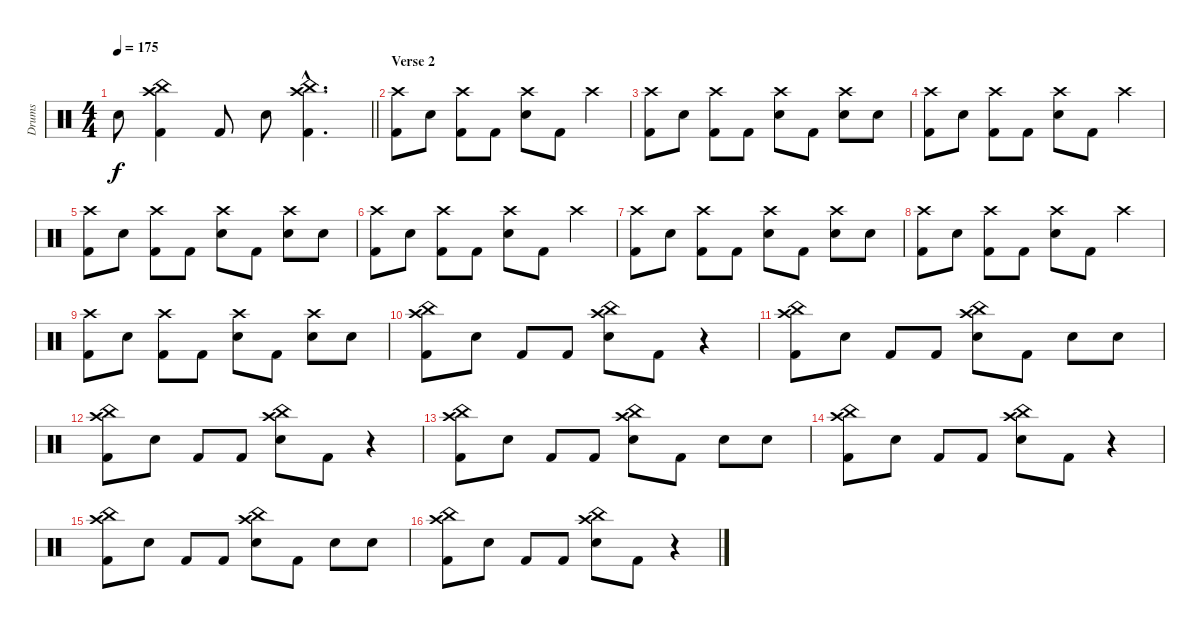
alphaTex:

\track ("Drums" "Drums") {instrument percussion}
\staff {score}
\articulation defaults
\ts (4 4)
\tempo 175
\clef neutral
\barLineRight lightlight
\ks c "Snare (hit) 2".8{dy f}
("China (hit)" "Crash high (hit)" "Kick (hit) 2").4 "Kick (hit) 2".8 "Snare (hit) 2".8 ("China (hit)"{hac} "Crash high (hit)"{hac} "Kick (hit) 2"{hac}).4{d} |
\section ("" "Verse 2")
("Crash high (hit)" "Kick (hit) 2").8 "Snare (hit) 2".8 ("Crash high (hit)" "Kick (hit) 2").8 "Kick (hit) 2".8 ("Crash high (hit)" "Snare (hit) 2").8 "Kick (hit) 2".8 "Crash high (hit)".4 |
("Crash high (hit)" "Kick (hit) 2").8 "Snare (hit) 2".8 ("Crash high (hit)" "Kick (hit) 2").8 "Kick (hit) 2".8 ("Crash high (hit)" "Snare (hit) 2").8 "Kick (hit) 2".8 ("Crash high (hit)" "Snare (hit) 2").8 "Snare (hit) 2".8 |
("Crash high (hit)" "Kick (hit) 2").8 "Snare (hit) 2".8 ("Crash high (hit)" "Kick (hit) 2").8 "Kick (hit) 2".8 ("Crash high (hit)" "Snare (hit) 2").8 "Kick (hit) 2".8 "Crash high (hit)".4 |
("Crash high (hit)" "Kick (hit) 2").8 "Snare (hit) 2".8 ("Crash high (hit)" "Kick (hit) 2").8 "Kick (hit) 2".8 ("Crash high (hit)" "Snare (hit) 2").8 "Kick (hit) 2".8 ("Crash high (hit)" "Snare (hit) 2").8 "Snare (hit) 2".8 |
("Crash high (hit)" "Kick (hit) 2").8 "Snare (hit) 2".8 ("Crash high (hit)" "Kick (hit) 2").8 "Kick (hit) 2".8 ("Crash high (hit)" "Snare (hit) 2").8 "Kick (hit) 2".8 "Crash high (hit)".4 |
("Crash high (hit)" "Kick (hit) 2").8 "Snare (hit) 2".8 ("Crash high (hit)" "Kick (hit) 2").8 "Kick (hit) 2".8 ("Crash high (hit)" "Snare (hit) 2").8 "Kick (hit) 2".8 ("Crash high (hit)" "Snare (hit) 2").8 "Snare (hit) 2".8 |
("Crash high (hit)" "Kick (hit) 2").8 "Snare (hit) 2".8 ("Crash high (hit)" "Kick (hit) 2").8 "Kick (hit) 2".8 ("Crash high (hit)" "Snare (hit) 2").8 "Kick (hit) 2".8 "Crash high (hit)".4 |
("Crash high (hit)" "Kick (hit) 2").8 "Snare (hit) 2".8 ("Crash high (hit)" "Kick (hit) 2").8 "Kick (hit) 2".8 ("Crash high (hit)" "Snare (hit) 2").8 "Kick (hit) 2".8 ("Crash high (hit)" "Snare (hit) 2").8 "Snare (hit) 2".8 |
("Crash high (hit)" "China (hit)" "Kick (hit) 2").8 "Snare (hit) 2".8 "Kick (hit) 2".8 "Kick (hit) 2".8 ("Crash high (hit)" "China (hit)" "Snare (hit) 2").8 "Kick (hit) 2".8 r.4 |
("Crash high (hit)" "China (hit)" "Kick (hit) 2").8 "Snare (hit) 2".8 "Kick (hit) 2".8 "Kick (hit) 2".8 ("Crash high (hit)" "China (hit)" "Snare (hit) 2").8 "Kick (hit) 2".8 "Snare (hit) 2".8 "Snare (hit) 2".8 |
("Crash high (hit)" "China (hit)" "Kick (hit) 2").8 "Snare (hit) 2".8 "Kick (hit) 2".8 "Kick (hit) 2".8 ("Crash high (hit)" "China (hit)" "Snare (hit) 2").8 "Kick (hit) 2".8 r.4 |
("Crash high (hit)" "China (hit)" "Kick (hit) 2").8 "Snare (hit) 2".8 "Kick (hit) 2".8 "Kick (hit) 2".8 ("Crash high (hit)" "China (hit)" "Snare (hit) 2").8 "Kick (hit) 2".8 "Snare (hit) 2".8 "Snare (hit) 2".8 |
("Crash high (hit)" "China (hit)" "Kick (hit) 2").8 "Snare (hit) 2".8 "Kick (hit) 2".8 "Kick (hit) 2".8 ("Crash high (hit)" "China (hit)" "Snare (hit) 2").8 "Kick (hit) 2".8 r.4 |
("Crash high (hit)" "China (hit)" "Kick (hit) 2").8 "Snare (hit) 2".8 "Kick (hit) 2".8 "Kick (hit) 2".8 ("Crash high (hit)" "China (hit)" "Snare (hit) 2").8 "Kick (hit) 2".8 "Snare (hit) 2".8 "Snare (hit) 2".8 |
("Crash high (hit)" "China (hit)" "Kick (hit) 2").8 "Snare (hit) 2".8 "Kick (hit) 2".8 "Kick (hit) 2".8 ("Crash high (hit)" "China (hit)" "Snare (hit) 2").8 "Kick (hit) 2".8 r.4
